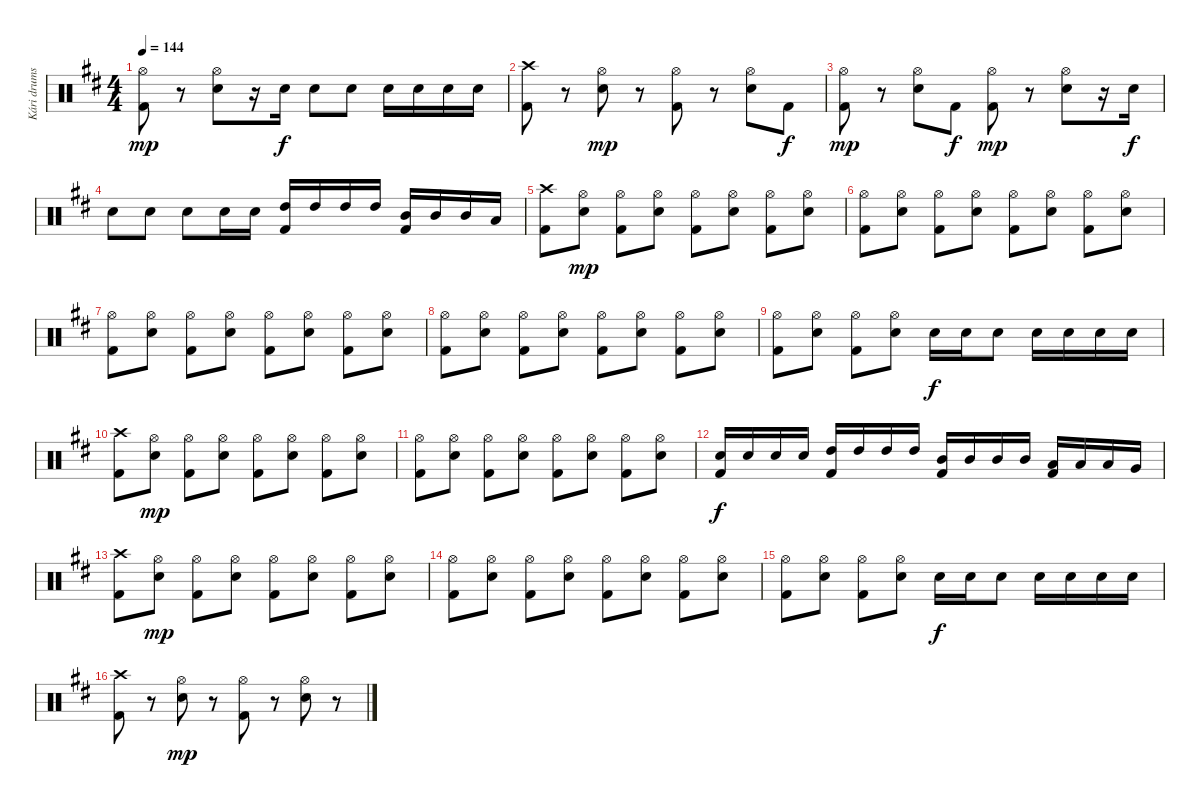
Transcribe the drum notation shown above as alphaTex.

\track ("Kári drums" "Kári drums") {instrument percussion}
\staff {score}
\articulation defaults
\ts (4 4)
\tempo 144
\clef neutral
\ks bminor
("Hi-Hat (open)" "Kick (hit) 2").8{dy mp} r.8 ("Hi-Hat (open)" "Snare (hit) 2").8 r.16 "Snare (hit) 2".16{dy f} "Snare (hit) 2".8 "Snare (hit) 2".8 "Snare (hit) 2".16 "Snare (hit) 2".16 "Snare (hit) 2".16 "Snare (hit) 2".16 |
("Crash high (hit)" "Kick (hit) 2").8 r.8 ("Hi-Hat (open)" "Snare (hit) 2").8{dy mp} r.8 ("Hi-Hat (open)" "Kick (hit) 2").8 r.8 ("Hi-Hat (open)" "Snare (hit) 2").8 "Kick (hit) 2".8{dy f} |
("Hi-Hat (open)" "Kick (hit) 2").8{dy mp} r.8 ("Hi-Hat (open)" "Snare (hit) 2").8 "Kick (hit) 2".8{dy f} ("Hi-Hat (open)" "Kick (hit) 2").8{dy mp} r.8 ("Hi-Hat (open)" "Snare (hit) 2").8 r.16 "Snare (hit) 2".16{dy f} |
"Snare (hit) 2".8 "Snare (hit) 2".8 "Snare (hit) 2".8 "Snare (hit) 2".16 "Snare (hit) 2".16 ("Kick (hit) 2" "High Tom (hit)").16 "High Tom (hit)".16 "High Tom (hit)".16 "High Tom (hit)".16 ("Kick (hit) 2" "Mid Tom (hit)").16 "Mid Tom (hit)".16 "Mid Tom (hit)".16 "Low Tom (hit)".16 |
("Crash high (hit)" "Kick (hit) 2").8 ("Hi-Hat (open)" "Snare (hit) 2").8{dy mp} ("Hi-Hat (open)" "Kick (hit) 2").8 ("Hi-Hat (open)" "Snare (hit) 2").8 ("Hi-Hat (open)" "Kick (hit) 2").8 ("Hi-Hat (open)" "Snare (hit) 2").8 ("Hi-Hat (open)" "Kick (hit) 2").8 ("Hi-Hat (open)" "Snare (hit) 2").8 |
("Hi-Hat (open)" "Kick (hit) 2").8 ("Hi-Hat (open)" "Snare (hit) 2").8 ("Hi-Hat (open)" "Kick (hit) 2").8 ("Hi-Hat (open)" "Snare (hit) 2").8 ("Hi-Hat (open)" "Kick (hit) 2").8 ("Hi-Hat (open)" "Snare (hit) 2").8 ("Hi-Hat (open)" "Kick (hit) 2").8 ("Hi-Hat (open)" "Snare (hit) 2").8 |
("Hi-Hat (open)" "Kick (hit) 2").8 ("Hi-Hat (open)" "Snare (hit) 2").8 ("Hi-Hat (open)" "Kick (hit) 2").8 ("Hi-Hat (open)" "Snare (hit) 2").8 ("Hi-Hat (open)" "Kick (hit) 2").8 ("Hi-Hat (open)" "Snare (hit) 2").8 ("Hi-Hat (open)" "Kick (hit) 2").8 ("Hi-Hat (open)" "Snare (hit) 2").8 |
("Hi-Hat (open)" "Kick (hit) 2").8 ("Hi-Hat (open)" "Snare (hit) 2").8 ("Hi-Hat (open)" "Kick (hit) 2").8 ("Hi-Hat (open)" "Snare (hit) 2").8 ("Hi-Hat (open)" "Kick (hit) 2").8 ("Hi-Hat (open)" "Snare (hit) 2").8 ("Hi-Hat (open)" "Kick (hit) 2").8 ("Hi-Hat (open)" "Snare (hit) 2").8 |
("Hi-Hat (open)" "Kick (hit) 2").8 ("Hi-Hat (open)" "Snare (hit) 2").8 ("Hi-Hat (open)" "Kick (hit) 2").8 ("Hi-Hat (open)" "Snare (hit) 2").8 "Snare (hit) 2".16{dy f} "Snare (hit) 2".16 "Snare (hit) 2".8 "Snare (hit) 2".16 "Snare (hit) 2".16 "Snare (hit) 2".16 "Snare (hit) 2".16 |
("Crash high (hit)" "Kick (hit) 2").8 ("Hi-Hat (open)" "Snare (hit) 2").8{dy mp} ("Hi-Hat (open)" "Kick (hit) 2").8 ("Hi-Hat (open)" "Snare (hit) 2").8 ("Hi-Hat (open)" "Kick (hit) 2").8 ("Hi-Hat (open)" "Snare (hit) 2").8 ("Hi-Hat (open)" "Kick (hit) 2").8 ("Hi-Hat (open)" "Snare (hit) 2").8 |
("Hi-Hat (open)" "Kick (hit) 2").8 ("Hi-Hat (open)" "Snare (hit) 2").8 ("Hi-Hat (open)" "Kick (hit) 2").8 ("Hi-Hat (open)" "Snare (hit) 2").8 ("Hi-Hat (open)" "Kick (hit) 2").8 ("Hi-Hat (open)" "Snare (hit) 2").8 ("Hi-Hat (open)" "Kick (hit) 2").8 ("Hi-Hat (open)" "Snare (hit) 2").8 |
("Snare (hit) 2" "Kick (hit) 2").16{dy f} "Snare (hit) 2".16 "Snare (hit) 2".16 "Snare (hit) 2".16 ("High Tom (hit)" "Kick (hit) 2").16 "High Tom (hit)".16 "High Tom (hit)".16 "High Tom (hit)".16 ("Mid Tom (hit)" "Kick (hit) 2").16 "Mid Tom (hit)".16 "Mid Tom (hit)".16 "Mid Tom (hit)".16 ("Low Tom (hit)" "Kick (hit) 2").16 "Low Tom (hit)".16 "Low Tom (hit)".16 "Very Low Tom (hit)".16 |
("Crash high (hit)" "Kick (hit) 2").8 ("Hi-Hat (open)" "Snare (hit) 2").8{dy mp} ("Hi-Hat (open)" "Kick (hit) 2").8 ("Hi-Hat (open)" "Snare (hit) 2").8 ("Hi-Hat (open)" "Kick (hit) 2").8 ("Hi-Hat (open)" "Snare (hit) 2").8 ("Hi-Hat (open)" "Kick (hit) 2").8 ("Hi-Hat (open)" "Snare (hit) 2").8 |
("Hi-Hat (open)" "Kick (hit) 2").8 ("Hi-Hat (open)" "Snare (hit) 2").8 ("Hi-Hat (open)" "Kick (hit) 2").8 ("Hi-Hat (open)" "Snare (hit) 2").8 ("Hi-Hat (open)" "Kick (hit) 2").8 ("Hi-Hat (open)" "Snare (hit) 2").8 ("Hi-Hat (open)" "Kick (hit) 2").8 ("Hi-Hat (open)" "Snare (hit) 2").8 |
("Hi-Hat (open)" "Kick (hit) 2").8 ("Hi-Hat (open)" "Snare (hit) 2").8 ("Hi-Hat (open)" "Kick (hit) 2").8 ("Hi-Hat (open)" "Snare (hit) 2").8 "Snare (hit) 2".16{dy f} "Snare (hit) 2".16 "Snare (hit) 2".8 "Snare (hit) 2".16 "Snare (hit) 2".16 "Snare (hit) 2".16 "Snare (hit) 2".16 |
("Crash high (hit)" "Kick (hit) 2").8 r.8 ("Hi-Hat (open)" "Snare (hit) 2").8{dy mp} r.8 ("Hi-Hat (open)" "Kick (hit) 2").8 r.8 ("Hi-Hat (open)" "Snare (hit) 2").8 r.8
